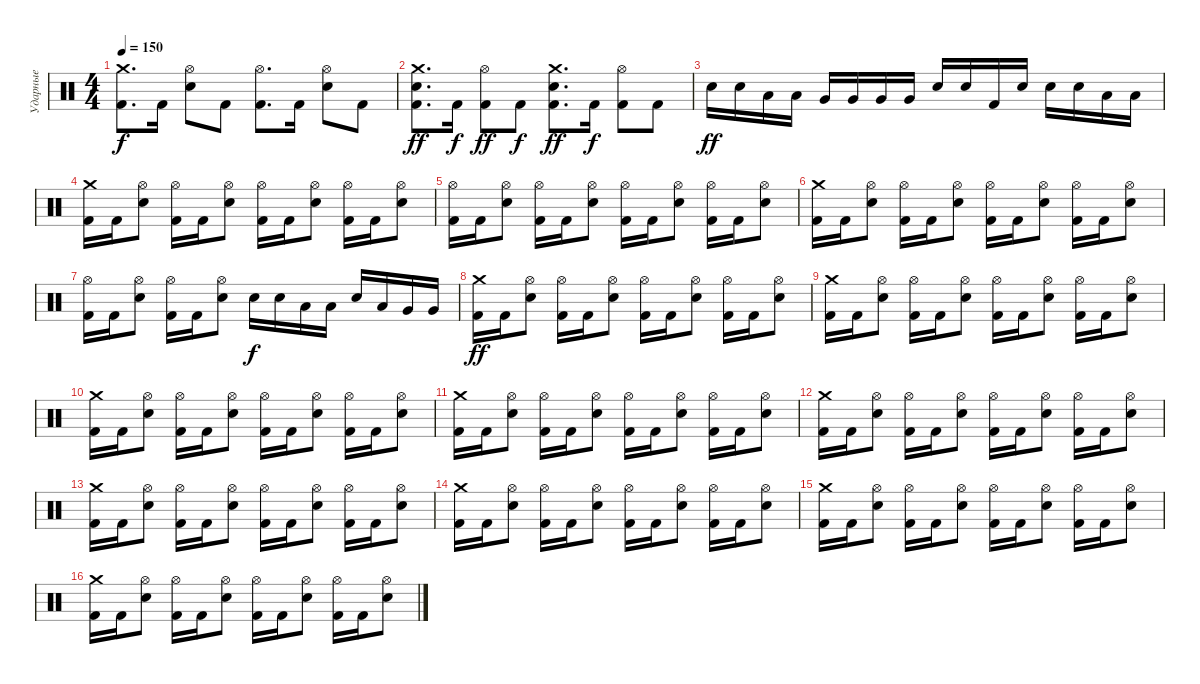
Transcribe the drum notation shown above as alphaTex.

\track ("Ударные" "Ударные") {instrument percussion}
\staff {score}
\articulation defaults
\ts (4 4)
\tempo 150
\clef neutral
\ks c
("Crash medium (hit)" "Kick (hit) 2").8{d dy f} "Kick (hit) 2".16 ("Hi-Hat (open)" "Snare (hit) 2").8 "Kick (hit) 2".8 ("Hi-Hat (open)" "Kick (hit) 2").8{d} "Kick (hit) 2".16 ("Hi-Hat (open)" "Snare (hit) 2").8 "Kick (hit) 2".8 |
("Crash medium (hit)" "Snare (hit) 2" "Kick (hit) 2").8{d dy ff} "Kick (hit) 2".16{dy f} ("Hi-Hat (open)" "Kick (hit) 2").8{dy ff} "Kick (hit) 2".8{dy f} ("Crash medium (hit)" "Snare (hit) 2" "Kick (hit) 2").8{d dy ff} "Kick (hit) 2".16{dy f} ("Hi-Hat (open)" "Kick (hit) 2").8 "Kick (hit) 2".8 |
"Snare (hit) 2".16{dy ff} "Snare (hit) 2".16 "Low Tom (hit)".16 "Low Tom (hit)".16 "Very Low Tom (hit)".16 "Very Low Tom (hit)".16 "Very Low Tom (hit)".16 "Very Low Tom (hit)".16 "Snare (hit) 2".16 "Snare (hit) 2".16 "Kick (hit) 2".16 "Snare (hit) 2".16 "Snare (hit) 2".16 "Snare (hit) 2".16 "Low Tom (hit)".16 "Low Tom (hit)".16 |
("Crash medium (hit)" "Kick (hit) 2").16 "Kick (hit) 2".16 ("Hi-Hat (open)" "Snare (hit) 2").8 ("Hi-Hat (open)" "Kick (hit) 2").16 "Kick (hit) 2".16 ("Hi-Hat (open)" "Snare (hit) 2").8 ("Hi-Hat (open)" "Kick (hit) 2").16 "Kick (hit) 2".16 ("Hi-Hat (open)" "Snare (hit) 2").8 ("Hi-Hat (open)" "Kick (hit) 2").16 "Kick (hit) 2".16 ("Hi-Hat (open)" "Snare (hit) 2").8 |
("Hi-Hat (open)" "Kick (hit) 2").16 "Kick (hit) 2".16 ("Hi-Hat (open)" "Snare (hit) 2").8 ("Hi-Hat (open)" "Kick (hit) 2").16 "Kick (hit) 2".16 ("Hi-Hat (open)" "Snare (hit) 2").8 ("Hi-Hat (open)" "Kick (hit) 2").16 "Kick (hit) 2".16 ("Hi-Hat (open)" "Snare (hit) 2").8 ("Hi-Hat (open)" "Kick (hit) 2").16 "Kick (hit) 2".16 ("Hi-Hat (open)" "Snare (hit) 2").8 |
("Crash medium (hit)" "Kick (hit) 2").16 "Kick (hit) 2".16 ("Hi-Hat (open)" "Snare (hit) 2").8 ("Hi-Hat (open)" "Kick (hit) 2").16 "Kick (hit) 2".16 ("Hi-Hat (open)" "Snare (hit) 2").8 ("Hi-Hat (open)" "Kick (hit) 2").16 "Kick (hit) 2".16 ("Hi-Hat (open)" "Snare (hit) 2").8 ("Hi-Hat (open)" "Kick (hit) 2").16 "Kick (hit) 2".16 ("Hi-Hat (open)" "Snare (hit) 2").8 |
("Hi-Hat (open)" "Kick (hit) 2").16 "Kick (hit) 2".16 ("Hi-Hat (open)" "Snare (hit) 2").8 ("Hi-Hat (open)" "Kick (hit) 2").16 "Kick (hit) 2".16 ("Hi-Hat (open)" "Snare (hit) 2").8 "Snare (hit) 2".16{dy f} "Snare (hit) 2".16 "Low Tom (hit)".16 "Low Tom (hit)".16 "Snare (hit) 2".16 "Low Tom (hit)".16 "Very Low Tom (hit)".16 "Very Low Tom (hit)".16 |
("Crash medium (hit)" "Kick (hit) 2").16{dy ff} "Kick (hit) 2".16 ("Hi-Hat (open)" "Snare (hit) 2").8 ("Hi-Hat (open)" "Kick (hit) 2").16 "Kick (hit) 2".16 ("Hi-Hat (open)" "Snare (hit) 2").8 ("Hi-Hat (open)" "Kick (hit) 2").16 "Kick (hit) 2".16 ("Hi-Hat (open)" "Snare (hit) 2").8 ("Hi-Hat (open)" "Kick (hit) 2").16 "Kick (hit) 2".16 ("Hi-Hat (open)" "Snare (hit) 2").8 |
("Crash medium (hit)" "Kick (hit) 2").16 "Kick (hit) 2".16 ("Hi-Hat (open)" "Snare (hit) 2").8 ("Hi-Hat (open)" "Kick (hit) 2").16 "Kick (hit) 2".16 ("Hi-Hat (open)" "Snare (hit) 2").8 ("Hi-Hat (open)" "Kick (hit) 2").16 "Kick (hit) 2".16 ("Hi-Hat (open)" "Snare (hit) 2").8 ("Hi-Hat (open)" "Kick (hit) 2").16 "Kick (hit) 2".16 ("Hi-Hat (open)" "Snare (hit) 2").8 |
("Crash medium (hit)" "Kick (hit) 2").16 "Kick (hit) 2".16 ("Hi-Hat (open)" "Snare (hit) 2").8 ("Hi-Hat (open)" "Kick (hit) 2").16 "Kick (hit) 2".16 ("Hi-Hat (open)" "Snare (hit) 2").8 ("Hi-Hat (open)" "Kick (hit) 2").16 "Kick (hit) 2".16 ("Hi-Hat (open)" "Snare (hit) 2").8 ("Hi-Hat (open)" "Kick (hit) 2").16 "Kick (hit) 2".16 ("Hi-Hat (open)" "Snare (hit) 2").8 |
("Crash medium (hit)" "Kick (hit) 2").16 "Kick (hit) 2".16 ("Hi-Hat (open)" "Snare (hit) 2").8 ("Hi-Hat (open)" "Kick (hit) 2").16 "Kick (hit) 2".16 ("Hi-Hat (open)" "Snare (hit) 2").8 ("Hi-Hat (open)" "Kick (hit) 2").16 "Kick (hit) 2".16 ("Hi-Hat (open)" "Snare (hit) 2").8 ("Hi-Hat (open)" "Kick (hit) 2").16 "Kick (hit) 2".16 ("Hi-Hat (open)" "Snare (hit) 2").8 |
("Crash medium (hit)" "Kick (hit) 2").16 "Kick (hit) 2".16 ("Hi-Hat (open)" "Snare (hit) 2").8 ("Hi-Hat (open)" "Kick (hit) 2").16 "Kick (hit) 2".16 ("Hi-Hat (open)" "Snare (hit) 2").8 ("Hi-Hat (open)" "Kick (hit) 2").16 "Kick (hit) 2".16 ("Hi-Hat (open)" "Snare (hit) 2").8 ("Hi-Hat (open)" "Kick (hit) 2").16 "Kick (hit) 2".16 ("Hi-Hat (open)" "Snare (hit) 2").8 |
("Crash medium (hit)" "Kick (hit) 2").16 "Kick (hit) 2".16 ("Hi-Hat (open)" "Snare (hit) 2").8 ("Hi-Hat (open)" "Kick (hit) 2").16 "Kick (hit) 2".16 ("Hi-Hat (open)" "Snare (hit) 2").8 ("Hi-Hat (open)" "Kick (hit) 2").16 "Kick (hit) 2".16 ("Hi-Hat (open)" "Snare (hit) 2").8 ("Hi-Hat (open)" "Kick (hit) 2").16 "Kick (hit) 2".16 ("Hi-Hat (open)" "Snare (hit) 2").8 |
("Crash medium (hit)" "Kick (hit) 2").16 "Kick (hit) 2".16 ("Hi-Hat (open)" "Snare (hit) 2").8 ("Hi-Hat (open)" "Kick (hit) 2").16 "Kick (hit) 2".16 ("Hi-Hat (open)" "Snare (hit) 2").8 ("Hi-Hat (open)" "Kick (hit) 2").16 "Kick (hit) 2".16 ("Hi-Hat (open)" "Snare (hit) 2").8 ("Hi-Hat (open)" "Kick (hit) 2").16 "Kick (hit) 2".16 ("Hi-Hat (open)" "Snare (hit) 2").8 |
("Crash medium (hit)" "Kick (hit) 2").16 "Kick (hit) 2".16 ("Hi-Hat (open)" "Snare (hit) 2").8 ("Hi-Hat (open)" "Kick (hit) 2").16 "Kick (hit) 2".16 ("Hi-Hat (open)" "Snare (hit) 2").8 ("Hi-Hat (open)" "Kick (hit) 2").16 "Kick (hit) 2".16 ("Hi-Hat (open)" "Snare (hit) 2").8 ("Hi-Hat (open)" "Kick (hit) 2").16 "Kick (hit) 2".16 ("Hi-Hat (open)" "Snare (hit) 2").8 |
("Crash medium (hit)" "Kick (hit) 2").16 "Kick (hit) 2".16 ("Hi-Hat (open)" "Snare (hit) 2").8 ("Hi-Hat (open)" "Kick (hit) 2").16 "Kick (hit) 2".16 ("Hi-Hat (open)" "Snare (hit) 2").8 ("Hi-Hat (open)" "Kick (hit) 2").16 "Kick (hit) 2".16 ("Hi-Hat (open)" "Snare (hit) 2").8 ("Hi-Hat (open)" "Kick (hit) 2").16 "Kick (hit) 2".16 ("Hi-Hat (open)" "Snare (hit) 2").8
